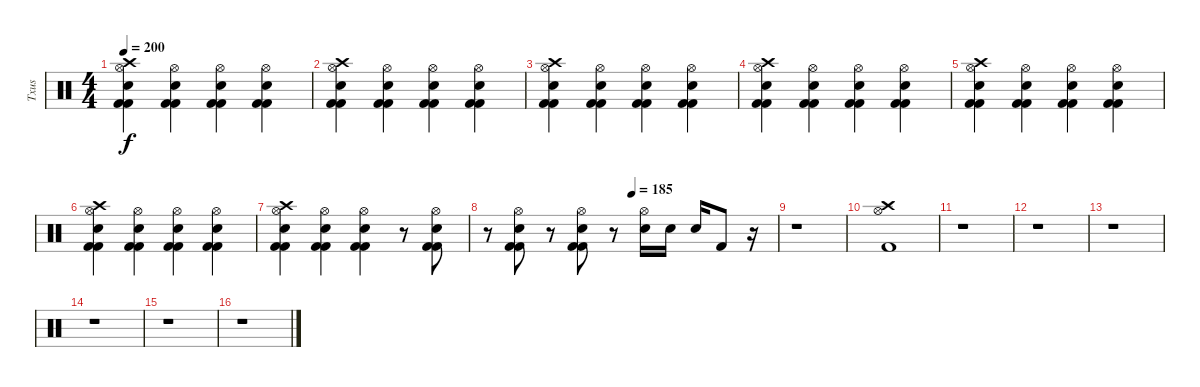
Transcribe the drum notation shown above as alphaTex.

\track ("Txus" "Txus") {instrument percussion}
\staff
\articulation defaults
\ts (4 4)
\tempo 200
\clef neutral
\ks c
("Electric Snare (hit)" "Kick (hit) 2" "Kick (hit) 2" "Hi-Hat (open)" "Crash high (hit)").4{dy f} ("Electric Snare (hit)" "Kick (hit) 2" "Kick (hit) 2" "Hi-Hat (open)").4 ("Electric Snare (hit)" "Kick (hit) 2" "Kick (hit) 2" "Hi-Hat (open)").4 ("Electric Snare (hit)" "Kick (hit) 2" "Kick (hit) 2" "Hi-Hat (open)").4 |
("Electric Snare (hit)" "Kick (hit) 2" "Kick (hit) 2" "Hi-Hat (open)" "Crash high (hit)").4 ("Electric Snare (hit)" "Kick (hit) 2" "Kick (hit) 2" "Hi-Hat (open)").4 ("Electric Snare (hit)" "Kick (hit) 2" "Kick (hit) 2" "Hi-Hat (open)").4 ("Electric Snare (hit)" "Kick (hit) 2" "Kick (hit) 2" "Hi-Hat (open)").4 |
("Electric Snare (hit)" "Kick (hit) 2" "Kick (hit) 2" "Hi-Hat (open)" "Crash high (hit)").4 ("Electric Snare (hit)" "Kick (hit) 2" "Kick (hit) 2" "Hi-Hat (open)").4 ("Electric Snare (hit)" "Kick (hit) 2" "Kick (hit) 2" "Hi-Hat (open)").4 ("Electric Snare (hit)" "Kick (hit) 2" "Kick (hit) 2" "Hi-Hat (open)").4 |
("Electric Snare (hit)" "Kick (hit) 2" "Kick (hit) 2" "Hi-Hat (open)" "Crash high (hit)").4 ("Electric Snare (hit)" "Kick (hit) 2" "Kick (hit) 2" "Hi-Hat (open)").4 ("Electric Snare (hit)" "Kick (hit) 2" "Kick (hit) 2" "Hi-Hat (open)").4 ("Electric Snare (hit)" "Kick (hit) 2" "Kick (hit) 2" "Hi-Hat (open)").4 |
("Electric Snare (hit)" "Kick (hit) 2" "Kick (hit) 2" "Hi-Hat (open)" "Crash high (hit)").4 ("Electric Snare (hit)" "Kick (hit) 2" "Kick (hit) 2" "Hi-Hat (open)").4 ("Electric Snare (hit)" "Kick (hit) 2" "Kick (hit) 2" "Hi-Hat (open)").4 ("Electric Snare (hit)" "Kick (hit) 2" "Kick (hit) 2" "Hi-Hat (open)").4 |
("Electric Snare (hit)" "Kick (hit) 2" "Kick (hit) 2" "Hi-Hat (open)" "Crash high (hit)").4 ("Electric Snare (hit)" "Kick (hit) 2" "Kick (hit) 2" "Hi-Hat (open)").4 ("Electric Snare (hit)" "Kick (hit) 2" "Kick (hit) 2" "Hi-Hat (open)").4 ("Electric Snare (hit)" "Kick (hit) 2" "Kick (hit) 2" "Hi-Hat (open)").4 |
("Electric Snare (hit)" "Kick (hit) 2" "Kick (hit) 2" "Hi-Hat (open)" "Crash high (hit)").4 ("Electric Snare (hit)" "Kick (hit) 2" "Kick (hit) 2" "Hi-Hat (open)").4 ("Electric Snare (hit)" "Kick (hit) 2" "Kick (hit) 2" "Hi-Hat (open)").4 r.8 ("Electric Snare (hit)" "Kick (hit) 2" "Kick (hit) 2" "Hi-Hat (open)").8 |
\tempo (185 0.5)
r.8 ("Electric Snare (hit)" "Kick (hit) 2" "Kick (hit) 2" "Hi-Hat (open)").8 r.8 ("Electric Snare (hit)" "Kick (hit) 2" "Kick (hit) 2" "Hi-Hat (open)").8 r.8 ("Snare (hit) 2" "Hi-Hat (open)").16 "Snare (hit) 2".16 "Snare (hit) 2".16 "Kick (hit) 2".8 r.16 |
r.1 |
("Kick (hit) 2" "Hi-Hat (open)" "Crash high (hit)").1 |
r.1 |
r.1 |
r.1 |
r.1 |
r.1 |
r.1
